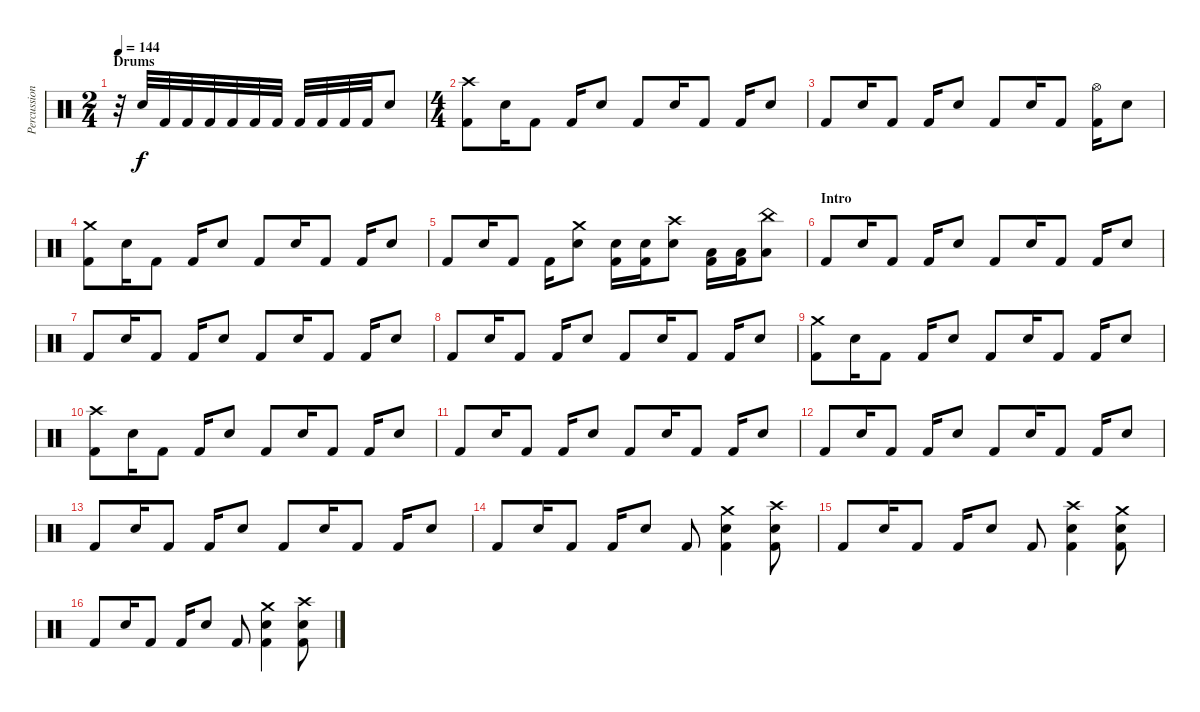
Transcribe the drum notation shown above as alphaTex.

\track ("Percussion" "Percussion") {instrument percussion}
\staff {score}
\articulation defaults
\ts (2 4)
\section ("" "Drums")
\tempo 144
\clef neutral
\ks c
r.32{dy f} "Snare (hit) 2".32 "Kick (hit) 2".32 "Kick (hit) 2".32 "Kick (hit) 2".32 "Kick (hit) 2".32 "Kick (hit) 2".32 "Kick (hit) 2".32 "Kick (hit) 2".32 "Kick (hit) 2".32 "Kick (hit) 2".32 "Kick (hit) 2".32 "Snare (hit) 2".8 |
\ts (4 4)
("Crash high (hit)" "Kick (hit) 2").8 "Snare (hit) 2".16 "Kick (hit) 2".8 "Kick (hit) 2".16 "Snare (hit) 2".8 "Kick (hit) 2".8 "Snare (hit) 2".16 "Kick (hit) 2".8 "Kick (hit) 2".16 "Snare (hit) 2".8 |
"Kick (hit) 2".8 "Snare (hit) 2".16 "Kick (hit) 2".8 "Kick (hit) 2".16 "Snare (hit) 2".8 "Kick (hit) 2".8 "Snare (hit) 2".16 "Kick (hit) 2".8 ("Hi-Hat (open)" "Kick (hit) 2").16 "Snare (hit) 2".8 |
("Crash medium (hit)" "Kick (hit) 2").8 "Snare (hit) 2".16 "Kick (hit) 2".8 "Kick (hit) 2".16 "Snare (hit) 2".8 "Kick (hit) 2".8 "Snare (hit) 2".16 "Kick (hit) 2".8 "Kick (hit) 2".16 "Snare (hit) 2".8 |
"Kick (hit) 2".8 "Snare (hit) 2".16 "Kick (hit) 2".8 "Kick (hit) 2".16 ("Crash medium (hit)" "Snare (hit) 2").8 ("Snare (hit) 2" "Kick (hit) 2").16 ("Snare (hit) 2" "Kick (hit) 2").16 ("Crash high (hit)" "Snare (hit) 2").8 ("Low Tom (hit)" "Kick (hit) 2").16 ("Low Tom (hit)" "Kick (hit) 2").16 ("China (hit)" "Low Tom (hit)").8 |
\section ("" "Intro")
"Kick (hit) 2".8 "Snare (hit) 2".16 "Kick (hit) 2".8 "Kick (hit) 2".16 "Snare (hit) 2".8 "Kick (hit) 2".8 "Snare (hit) 2".16 "Kick (hit) 2".8 "Kick (hit) 2".16 "Snare (hit) 2".8 |
"Kick (hit) 2".8 "Snare (hit) 2".16 "Kick (hit) 2".8 "Kick (hit) 2".16 "Snare (hit) 2".8 "Kick (hit) 2".8 "Snare (hit) 2".16 "Kick (hit) 2".8 "Kick (hit) 2".16 "Snare (hit) 2".8 |
"Kick (hit) 2".8 "Snare (hit) 2".16 "Kick (hit) 2".8 "Kick (hit) 2".16 "Snare (hit) 2".8 "Kick (hit) 2".8 "Snare (hit) 2".16 "Kick (hit) 2".8 "Kick (hit) 2".16 "Snare (hit) 2".8 |
("Crash medium (hit)" "Kick (hit) 2").8 "Snare (hit) 2".16 "Kick (hit) 2".8 "Kick (hit) 2".16 "Snare (hit) 2".8 "Kick (hit) 2".8 "Snare (hit) 2".16 "Kick (hit) 2".8 "Kick (hit) 2".16 "Snare (hit) 2".8 |
("Crash high (hit)" "Kick (hit) 2").8 "Snare (hit) 2".16 "Kick (hit) 2".8 "Kick (hit) 2".16 "Snare (hit) 2".8 "Kick (hit) 2".8 "Snare (hit) 2".16 "Kick (hit) 2".8 "Kick (hit) 2".16 "Snare (hit) 2".8 |
"Kick (hit) 2".8 "Snare (hit) 2".16 "Kick (hit) 2".8 "Kick (hit) 2".16 "Snare (hit) 2".8 "Kick (hit) 2".8 "Snare (hit) 2".16 "Kick (hit) 2".8 "Kick (hit) 2".16 "Snare (hit) 2".8 |
"Kick (hit) 2".8 "Snare (hit) 2".16 "Kick (hit) 2".8 "Kick (hit) 2".16 "Snare (hit) 2".8 "Kick (hit) 2".8 "Snare (hit) 2".16 "Kick (hit) 2".8 "Kick (hit) 2".16 "Snare (hit) 2".8 |
"Kick (hit) 2".8 "Snare (hit) 2".16 "Kick (hit) 2".8 "Kick (hit) 2".16 "Snare (hit) 2".8 "Kick (hit) 2".8 "Snare (hit) 2".16 "Kick (hit) 2".8 "Kick (hit) 2".16 "Snare (hit) 2".8 |
"Kick (hit) 2".8 "Snare (hit) 2".16 "Kick (hit) 2".8 "Kick (hit) 2".16 "Snare (hit) 2".8 "Kick (hit) 2".8 ("Crash medium (hit)" "Snare (hit) 2" "Kick (hit) 2").4 ("Crash high (hit)" "Snare (hit) 2" "Kick (hit) 2").8 |
"Kick (hit) 2".8 "Snare (hit) 2".16 "Kick (hit) 2".8 "Kick (hit) 2".16 "Snare (hit) 2".8 "Kick (hit) 2".8 ("Crash high (hit)" "Snare (hit) 2" "Kick (hit) 2").4 ("Crash medium (hit)" "Snare (hit) 2" "Kick (hit) 2").8 |
"Kick (hit) 2".8 "Snare (hit) 2".16 "Kick (hit) 2".8 "Kick (hit) 2".16 "Snare (hit) 2".8 "Kick (hit) 2".8 ("Crash medium (hit)" "Snare (hit) 2" "Kick (hit) 2").4 ("Crash high (hit)" "Snare (hit) 2" "Kick (hit) 2").8
